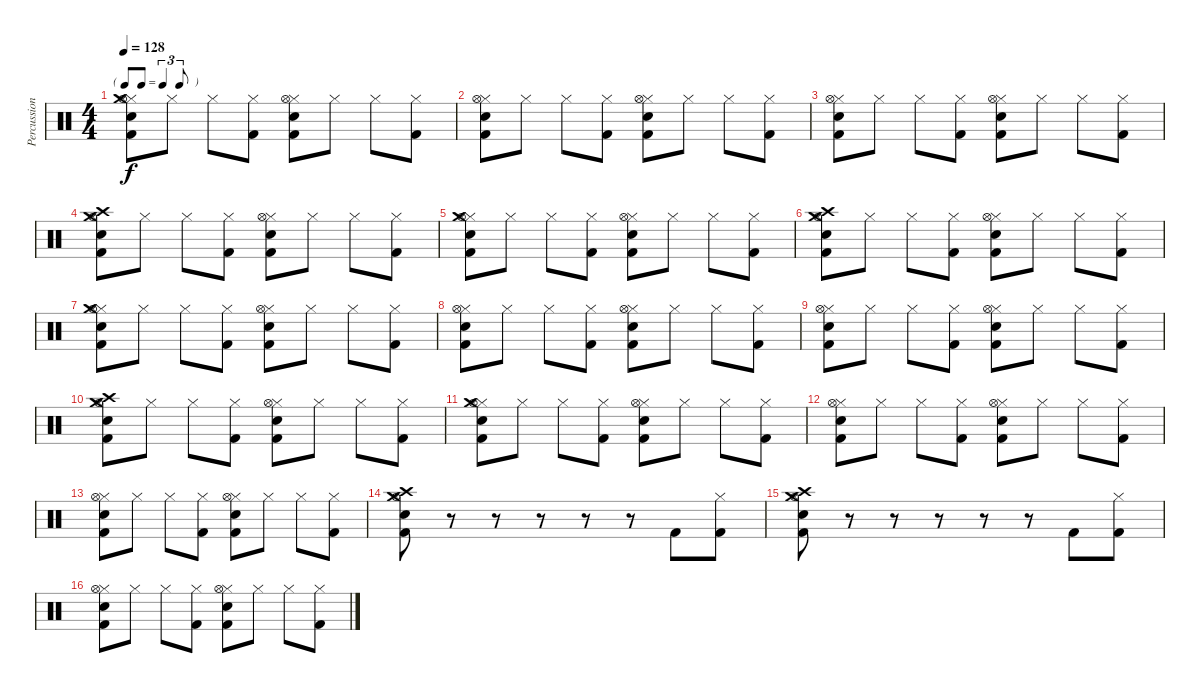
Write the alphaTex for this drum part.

\track ("Percussion" "Percussion") {instrument percussion}
\staff {score}
\articulation defaults
\ts (4 4)
\tf triplet8th
\tempo 128
\clef neutral
\ks c
("Kick (hit) 2" "Electric Snare (hit)" "Hi-Hat (closed)" "Crash medium (hit)" "Hi-Hat (open)").8{dy f} "Hi-Hat (closed)".8 "Hi-Hat (closed)".8 ("Kick (hit) 2" "Hi-Hat (closed)").8 ("Kick (hit) 2" "Electric Snare (hit)" "Hi-Hat (closed)" "Hi-Hat (open)").8 "Hi-Hat (closed)".8 "Hi-Hat (closed)".8 ("Kick (hit) 2" "Hi-Hat (closed)").8 |
("Kick (hit) 2" "Electric Snare (hit)" "Hi-Hat (closed)" "Hi-Hat (open)").8 "Hi-Hat (closed)".8 "Hi-Hat (closed)".8 ("Kick (hit) 2" "Hi-Hat (closed)").8 ("Kick (hit) 2" "Electric Snare (hit)" "Hi-Hat (closed)" "Hi-Hat (open)").8 "Hi-Hat (closed)".8 "Hi-Hat (closed)".8 ("Kick (hit) 2" "Hi-Hat (closed)").8 |
("Kick (hit) 2" "Electric Snare (hit)" "Hi-Hat (closed)" "Hi-Hat (open)").8 "Hi-Hat (closed)".8 "Hi-Hat (closed)".8 ("Kick (hit) 2" "Hi-Hat (closed)").8 ("Kick (hit) 2" "Electric Snare (hit)" "Hi-Hat (closed)" "Hi-Hat (open)").8 "Hi-Hat (closed)".8 "Hi-Hat (closed)".8 ("Kick (hit) 2" "Hi-Hat (closed)").8 |
("Kick (hit) 2" "Electric Snare (hit)" "Crash medium (hit)" "Crash high (hit)" "Hi-Hat (open)").8 "Hi-Hat (closed)".8 "Hi-Hat (closed)".8 ("Kick (hit) 2" "Hi-Hat (closed)").8 ("Kick (hit) 2" "Electric Snare (hit)" "Hi-Hat (closed)" "Hi-Hat (open)").8 "Hi-Hat (closed)".8 "Hi-Hat (closed)".8 ("Kick (hit) 2" "Hi-Hat (closed)").8 |
("Kick (hit) 2" "Electric Snare (hit)" "Hi-Hat (closed)" "Crash medium (hit)" "Hi-Hat (open)").8 "Hi-Hat (closed)".8 "Hi-Hat (closed)".8 ("Kick (hit) 2" "Hi-Hat (closed)").8 ("Kick (hit) 2" "Electric Snare (hit)" "Hi-Hat (closed)" "Hi-Hat (open)").8 "Hi-Hat (closed)".8 "Hi-Hat (closed)".8 ("Kick (hit) 2" "Hi-Hat (closed)").8 |
("Kick (hit) 2" "Electric Snare (hit)" "Crash medium (hit)" "Crash high (hit)" "Hi-Hat (open)").8 "Hi-Hat (closed)".8 "Hi-Hat (closed)".8 ("Kick (hit) 2" "Hi-Hat (closed)").8 ("Kick (hit) 2" "Electric Snare (hit)" "Hi-Hat (closed)" "Hi-Hat (open)").8 "Hi-Hat (closed)".8 "Hi-Hat (closed)".8 ("Kick (hit) 2" "Hi-Hat (closed)").8 |
("Kick (hit) 2" "Electric Snare (hit)" "Hi-Hat (closed)" "Crash medium (hit)" "Hi-Hat (open)").8 "Hi-Hat (closed)".8 "Hi-Hat (closed)".8 ("Kick (hit) 2" "Hi-Hat (closed)").8 ("Kick (hit) 2" "Electric Snare (hit)" "Hi-Hat (closed)" "Hi-Hat (open)").8 "Hi-Hat (closed)".8 "Hi-Hat (closed)".8 ("Kick (hit) 2" "Hi-Hat (closed)").8 |
("Kick (hit) 2" "Electric Snare (hit)" "Hi-Hat (closed)" "Hi-Hat (open)").8 "Hi-Hat (closed)".8 "Hi-Hat (closed)".8 ("Kick (hit) 2" "Hi-Hat (closed)").8 ("Kick (hit) 2" "Electric Snare (hit)" "Hi-Hat (closed)" "Hi-Hat (open)").8 "Hi-Hat (closed)".8 "Hi-Hat (closed)".8 ("Kick (hit) 2" "Hi-Hat (closed)").8 |
("Kick (hit) 2" "Electric Snare (hit)" "Hi-Hat (closed)" "Hi-Hat (open)").8 "Hi-Hat (closed)".8 "Hi-Hat (closed)".8 ("Kick (hit) 2" "Hi-Hat (closed)").8 ("Kick (hit) 2" "Electric Snare (hit)" "Hi-Hat (closed)" "Hi-Hat (open)").8 "Hi-Hat (closed)".8 "Hi-Hat (closed)".8 ("Kick (hit) 2" "Hi-Hat (closed)").8 |
("Kick (hit) 2" "Electric Snare (hit)" "Crash medium (hit)" "Crash high (hit)" "Hi-Hat (open)").8 "Hi-Hat (closed)".8 "Hi-Hat (closed)".8 ("Kick (hit) 2" "Hi-Hat (closed)").8 ("Kick (hit) 2" "Electric Snare (hit)" "Hi-Hat (closed)" "Hi-Hat (open)").8 "Hi-Hat (closed)".8 "Hi-Hat (closed)".8 ("Kick (hit) 2" "Hi-Hat (closed)").8 |
("Kick (hit) 2" "Electric Snare (hit)" "Hi-Hat (closed)" "Crash medium (hit)" "Hi-Hat (open)").8 "Hi-Hat (closed)".8 "Hi-Hat (closed)".8 ("Kick (hit) 2" "Hi-Hat (closed)").8 ("Kick (hit) 2" "Electric Snare (hit)" "Hi-Hat (closed)" "Hi-Hat (open)").8 "Hi-Hat (closed)".8 "Hi-Hat (closed)".8 ("Kick (hit) 2" "Hi-Hat (closed)").8 |
("Kick (hit) 2" "Electric Snare (hit)" "Hi-Hat (closed)" "Hi-Hat (open)").8 "Hi-Hat (closed)".8 "Hi-Hat (closed)".8 ("Kick (hit) 2" "Hi-Hat (closed)").8 ("Kick (hit) 2" "Electric Snare (hit)" "Hi-Hat (closed)" "Hi-Hat (open)").8 "Hi-Hat (closed)".8 "Hi-Hat (closed)".8 ("Kick (hit) 2" "Hi-Hat (closed)").8 |
("Kick (hit) 2" "Electric Snare (hit)" "Hi-Hat (closed)" "Hi-Hat (open)").8 "Hi-Hat (closed)".8 "Hi-Hat (closed)".8 ("Kick (hit) 2" "Hi-Hat (closed)").8 ("Kick (hit) 2" "Electric Snare (hit)" "Hi-Hat (closed)" "Hi-Hat (open)").8 "Hi-Hat (closed)".8 "Hi-Hat (closed)".8 ("Kick (hit) 2" "Hi-Hat (closed)").8 |
("Kick (hit) 2" "Electric Snare (hit)" "Crash medium (hit)" "Crash high (hit)" "Hi-Hat (open)").8 r.8 r.8 r.8 r.8 r.8 "Kick (hit) 2".8 ("Kick (hit) 2" "Hi-Hat (closed)").8 |
("Kick (hit) 2" "Electric Snare (hit)" "Crash medium (hit)" "Crash high (hit)" "Hi-Hat (open)").8 r.8 r.8 r.8 r.8 r.8 "Kick (hit) 2".8 ("Kick (hit) 2" "Hi-Hat (closed)").8 |
("Kick (hit) 2" "Electric Snare (hit)" "Hi-Hat (closed)" "Hi-Hat (open)").8 "Hi-Hat (closed)".8 "Hi-Hat (closed)".8 ("Kick (hit) 2" "Hi-Hat (closed)").8 ("Kick (hit) 2" "Electric Snare (hit)" "Hi-Hat (closed)" "Hi-Hat (open)").8 "Hi-Hat (closed)".8 "Hi-Hat (closed)".8 ("Kick (hit) 2" "Hi-Hat (closed)").8
